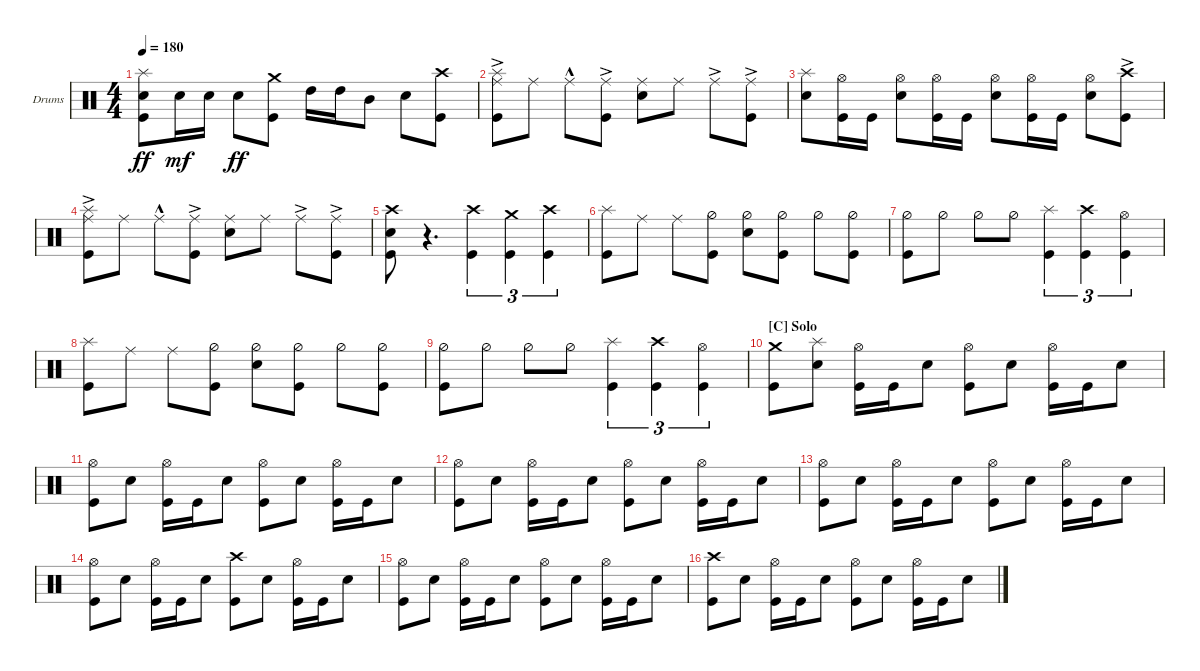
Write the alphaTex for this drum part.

\bracketExtendMode groupsimilarinstruments
\firstSystemTrackNameOrientation horizontal
\otherSystemsTrackNameOrientation horizontal
\track ("Drumkit" "Drums") {instrument percussion}
\staff {score}
\articulation defaults
\ts (4 4)
\tempo 180
\clef neutral
\scale
1.02648
\ks c
("Kick (hit)" "Snare (hit) 2" "Splash (hit)").8{dy ff} "Snare (hit) 2".16{dy mf} "Snare (hit) 2".16 "Snare (hit) 2".8{dy ff} ("Kick (hit)" "Crash medium (hit)").8 "High Tom (hit)".16 "High Tom (hit)".16 "Mid Tom (hit)".8 "Snare (hit) 2".8 ("Kick (hit)" "Crash high (hit)").8 |
\scale
0.973518 ("Kick (hit)"{ac} "Ride (middle)" "Splash (hit)").8 "Ride (middle)".8 "Ride (middle)"{hac}.8 ("Ride (middle)" "Kick (hit)"{ac}).8 ("Ride (middle)" "Snare (hit) 2").8 "Ride (middle)".8 "Ride (middle)"{ac}.8 ("Ride (middle)" "Kick (hit)"{ac}).8 |
\scale
1.02648 ("Snare (hit) 2" "Splash (hit)").8 ("Kick (hit)" "Hi-Hat (open)").16 "Kick (hit)".16 ("Snare (hit) 2" "Hi-Hat (open)").8 ("Kick (hit)" "Hi-Hat (open)").16 "Kick (hit)".16 ("Snare (hit) 2" "Hi-Hat (open)").8 ("Kick (hit)" "Hi-Hat (open)").16 "Kick (hit)".16 ("Snare (hit) 2" "Hi-Hat (open)").8 ("Kick (hit)"{ac} "Crash high (hit)").8 |
\scale
0.973518 ("Kick (hit)"{ac} "Ride (middle)" "Splash (hit)").8 "Ride (middle)".8 "Ride (middle)"{hac}.8 ("Ride (middle)" "Kick (hit)"{ac}).8 ("Ride (middle)" "Snare (hit) 2").8 "Ride (middle)".8 "Ride (middle)"{ac}.8 ("Ride (middle)" "Kick (hit)"{ac}).8 |
\scale
1.02648 ("Kick (hit)" "Crash high (hit)" "Snare (hit) 2").8 r.4{d} ("Kick (hit)" "Crash high (hit)").4{tu (3 2)} ("Kick (hit)" "Crash medium (hit)").4{tu (3 2)} ("Kick (hit)" "Crash high (hit)").4{tu (3 2)} |
\scale
0.973518 ("Kick (hit)" "Splash (hit)").8 "Ride (middle)".8 "Ride (middle)".8 ("Hi-Hat (half)" "Kick (hit)").8 ("Snare (hit) 2" "Hi-Hat (half)").8 ("Kick (hit)" "Hi-Hat (half)").8 "Hi-Hat (half)".8 ("Kick (hit)" "Hi-Hat (half)").8 |
\scale
1.02648 ("Kick (hit)" "Hi-Hat (half)").8 "Hi-Hat (half)".8 "Hi-Hat (half)".8 "Hi-Hat (half)".8 ("Kick (hit)" "Splash (hit)").4{tu (3 2)} ("Kick (hit)" "Crash high (hit)").4{tu (3 2)} ("Kick (hit)" "Hi-Hat (open)").4{tu (3 2)} |
\scale
0.973518 ("Kick (hit)" "Splash (hit)").8 "Ride (middle)".8 "Ride (middle)".8 ("Hi-Hat (half)" "Kick (hit)").8 ("Snare (hit) 2" "Hi-Hat (half)").8 ("Kick (hit)" "Hi-Hat (half)").8 "Hi-Hat (half)".8 ("Kick (hit)" "Hi-Hat (half)").8 |
\scale
1.02648 ("Kick (hit)" "Hi-Hat (half)").8 "Hi-Hat (half)".8 "Hi-Hat (half)".8 "Hi-Hat (half)".8 ("Kick (hit)" "Splash (hit)").4{tu (3 2)} ("Kick (hit)" "Crash high (hit)").4{tu (3 2)} ("Kick (hit)" "Hi-Hat (open)").4{tu (3 2)} |
\section ("C" "Solo")
\scale
0.973518 ("Kick (hit)" "Crash medium (hit)").8 ("Snare (hit) 2" "Splash (hit)").8 ("Kick (hit)" "Hi-Hat (open)").16 "Kick (hit)".16 "Snare (hit) 2".8 ("Kick (hit)" "Hi-Hat (open)").8 "Snare (hit) 2".8 ("Kick (hit)" "Hi-Hat (open)").16 "Kick (hit)".16 "Snare (hit) 2".8 |
\scale
1.02648 ("Kick (hit)" "Hi-Hat (open)").8 "Snare (hit) 2".8 ("Kick (hit)" "Hi-Hat (open)").16 "Kick (hit)".16 "Snare (hit) 2".8 ("Kick (hit)" "Hi-Hat (open)").8 "Snare (hit) 2".8 ("Kick (hit)" "Hi-Hat (open)").16 "Kick (hit)".16 "Snare (hit) 2".8 |
\scale
0.973518 ("Kick (hit)" "Hi-Hat (open)").8 "Snare (hit) 2".8 ("Kick (hit)" "Hi-Hat (open)").16 "Kick (hit)".16 "Snare (hit) 2".8 ("Kick (hit)" "Hi-Hat (open)").8 "Snare (hit) 2".8 ("Kick (hit)" "Hi-Hat (open)").16 "Kick (hit)".16 "Snare (hit) 2".8 |
\scale
1.02648 ("Kick (hit)" "Hi-Hat (open)").8 "Snare (hit) 2".8 ("Kick (hit)" "Hi-Hat (open)").16 "Kick (hit)".16 "Snare (hit) 2".8 ("Kick (hit)" "Hi-Hat (open)").8 "Snare (hit) 2".8 ("Kick (hit)" "Hi-Hat (open)").16 "Kick (hit)".16 "Snare (hit) 2".8 |
\scale
0.973518 ("Kick (hit)" "Hi-Hat (open)").8 "Snare (hit) 2".8 ("Kick (hit)" "Hi-Hat (open)").16 "Kick (hit)".16 "Snare (hit) 2".8 ("Kick (hit)" "Crash high (hit)").8 "Snare (hit) 2".8 ("Kick (hit)" "Hi-Hat (open)").16 "Kick (hit)".16 "Snare (hit) 2".8 |
\scale
1.02648 ("Kick (hit)" "Hi-Hat (open)").8 "Snare (hit) 2".8 ("Kick (hit)" "Hi-Hat (open)").16 "Kick (hit)".16 "Snare (hit) 2".8 ("Kick (hit)" "Hi-Hat (open)").8 "Snare (hit) 2".8 ("Kick (hit)" "Hi-Hat (open)").16 "Kick (hit)".16 "Snare (hit) 2".8 |
\scale
0.973518 ("Kick (hit)" "Crash high (hit)").8 "Snare (hit) 2".8 ("Kick (hit)" "Hi-Hat (open)").16 "Kick (hit)".16 "Snare (hit) 2".8 ("Kick (hit)" "Hi-Hat (open)").8 "Snare (hit) 2".8 ("Kick (hit)" "Hi-Hat (open)").16 "Kick (hit)".16 "Snare (hit) 2".8
